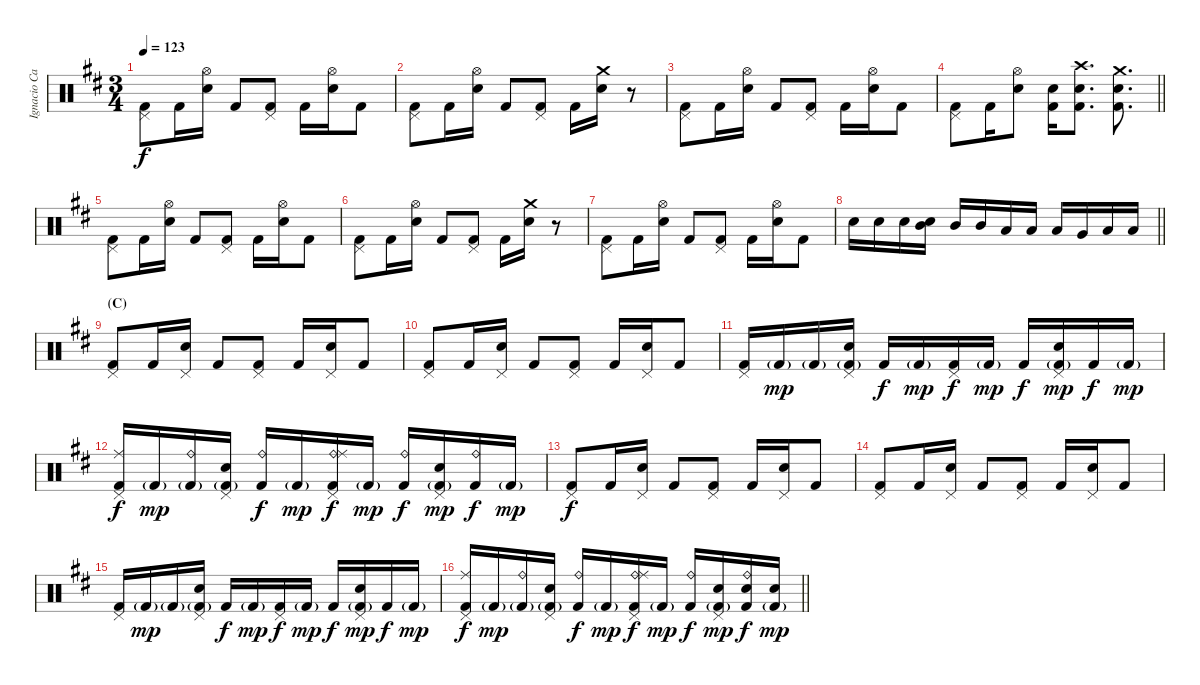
\track ("Ignacio Cantera - Batería" "Ignacio Ca") {instrument percussion}
\staff {score}
\articulation defaults
\ts (3 4)
\tempo 123
\clef neutral
\ks bminor
("Pedal Hi-Hat (hit)" "Kick (hit) 2").8{dy f} "Kick (hit) 2".16 ("Hi-Hat (open)" "Snare (hit) 2").16 "Kick (hit) 2".8 ("Pedal Hi-Hat (hit)" "Kick (hit) 2").8 "Kick (hit) 2".16 ("Hi-Hat (open)" "Snare (hit) 2").16 "Kick (hit) 2".8 |
("Pedal Hi-Hat (hit)" "Kick (hit) 2").8 "Kick (hit) 2".16 ("Hi-Hat (open)" "Snare (hit) 2").16 "Kick (hit) 2".8 ("Pedal Hi-Hat (hit)" "Kick (hit) 2").8 "Kick (hit) 2".16 ("Crash medium (hit)" "Snare (hit) 2").16 r.8 |
("Pedal Hi-Hat (hit)" "Kick (hit) 2").8 "Kick (hit) 2".16 ("Hi-Hat (open)" "Snare (hit) 2").16 "Kick (hit) 2".8 ("Pedal Hi-Hat (hit)" "Kick (hit) 2").8 "Kick (hit) 2".16 ("Hi-Hat (open)" "Snare (hit) 2").16 "Kick (hit) 2".8 |
\barLineRight lightlight
("Pedal Hi-Hat (hit)" "Kick (hit) 2").8 "Kick (hit) 2".16 ("Hi-Hat (open)" "Snare (hit) 2").8 ("Electric Snare (hit)" "Kick (hit) 2").16 ("Crash high (hit)" "Snare (hit) 2" "Kick (hit) 2").8{d} ("Crash medium (hit)" "Snare (hit) 2" "Kick (hit) 2").8{d} |
("Pedal Hi-Hat (hit)" "Kick (hit) 2").8 "Kick (hit) 2".16 ("Hi-Hat (open)" "Snare (hit) 2").16 "Kick (hit) 2".8 ("Pedal Hi-Hat (hit)" "Kick (hit) 2").8 "Kick (hit) 2".16 ("Hi-Hat (open)" "Snare (hit) 2").16 "Kick (hit) 2".8 |
("Pedal Hi-Hat (hit)" "Kick (hit) 2").8 "Kick (hit) 2".16 ("Hi-Hat (open)" "Snare (hit) 2").16 "Kick (hit) 2".8 ("Pedal Hi-Hat (hit)" "Kick (hit) 2").8 "Kick (hit) 2".16 ("Crash medium (hit)" "Snare (hit) 2").16 r.8 |
("Pedal Hi-Hat (hit)" "Kick (hit) 2").8 "Kick (hit) 2".16 ("Hi-Hat (open)" "Snare (hit) 2").16 "Kick (hit) 2".8 ("Pedal Hi-Hat (hit)" "Kick (hit) 2").8 "Kick (hit) 2".16 ("Hi-Hat (open)" "Snare (hit) 2").16 "Kick (hit) 2".8 |
\barLineRight lightlight "Electric Snare (hit)".16 "Electric Snare (hit)".16 "Electric Snare (hit)".16
("Mid Tom (hit)" "Snare (hit) 2").16 "Mid Tom (hit)".16 "Mid Tom (hit)".16 "Low Tom (hit)".16 "Low Tom (hit)".16 "Low Tom (hit)".16 "Very Low Tom (hit)".16 "Low Floor Tom (hit)".16 "Low Floor Tom (hit)".16 |
\section ("" "(C)")
("Pedal Hi-Hat (hit)" "Kick (hit) 2").8 "Kick (hit) 2".16 ("Pedal Hi-Hat (hit)" "Snare (hit) 2").16 "Kick (hit) 2".8 ("Pedal Hi-Hat (hit)" "Kick (hit) 2").8 "Kick (hit) 2".16 ("Pedal Hi-Hat (hit)" "Snare (hit) 2").16 "Kick (hit) 2".8 |
("Pedal Hi-Hat (hit)" "Kick (hit) 2").8 "Kick (hit) 2".16 ("Pedal Hi-Hat (hit)" "Snare (hit) 2").16 "Kick (hit) 2".8 ("Pedal Hi-Hat (hit)" "Kick (hit) 2").8 "Kick (hit) 2".16 ("Pedal Hi-Hat (hit)" "Snare (hit) 2").16 "Kick (hit) 2".8 |
("Pedal Hi-Hat (hit)" "Kick (hit) 2").16 "Kick (hit) 2"{g}.16{dy mp} "Kick (hit) 2"{g}.16 ("Pedal Hi-Hat (hit)" "Snare (hit) 2" "Kick (hit) 2"{g}).16 "Kick (hit) 2".16{dy f} "Kick (hit) 2"{g}.16{dy mp} ("Pedal Hi-Hat (hit)" "Kick (hit) 2").16{dy f} "Kick (hit) 2"{g}.16{dy mp} "Kick (hit) 2".16{dy f} ("Pedal Hi-Hat (hit)" "Snare (hit) 2" "Kick (hit) 2"{g}).16{dy mp} "Kick (hit) 2".16{dy f} "Kick (hit) 2"{g}.16{dy mp} |
("Pedal Hi-Hat (hit)" "Ride (middle)" "Kick (hit) 2").16{dy f} "Kick (hit) 2"{g}.16{dy mp} ("Ride (bell)" "Kick (hit) 2"{g}).16 ("Pedal Hi-Hat (hit)" "Snare (hit) 2" "Kick (hit) 2"{g}).16 ("Ride (bell)" "Kick (hit) 2").16{dy f} "Kick (hit) 2"{g}.16{dy mp} ("Pedal Hi-Hat (hit)" "Ride (bell)" "Ride (middle)" "Kick (hit) 2").16{dy f} "Kick (hit) 2"{g}.16{dy mp} ("Ride (bell)" "Kick (hit) 2").16{dy f} ("Pedal Hi-Hat (hit)" "Snare (hit) 2" "Kick (hit) 2"{g}).16{dy mp} ("Ride (bell)" "Kick (hit) 2").16{dy f} "Kick (hit) 2"{g}.16{dy mp} |
("Pedal Hi-Hat (hit)" "Kick (hit) 2").8{dy f} "Kick (hit) 2".16 ("Pedal Hi-Hat (hit)" "Snare (hit) 2").16 "Kick (hit) 2".8 ("Pedal Hi-Hat (hit)" "Kick (hit) 2").8 "Kick (hit) 2".16 ("Pedal Hi-Hat (hit)" "Snare (hit) 2").16 "Kick (hit) 2".8 |
("Pedal Hi-Hat (hit)" "Kick (hit) 2").8 "Kick (hit) 2".16 ("Pedal Hi-Hat (hit)" "Snare (hit) 2").16 "Kick (hit) 2".8 ("Pedal Hi-Hat (hit)" "Kick (hit) 2").8 "Kick (hit) 2".16 ("Pedal Hi-Hat (hit)" "Snare (hit) 2").16 "Kick (hit) 2".8 |
("Pedal Hi-Hat (hit)" "Kick (hit) 2").16 "Kick (hit) 2"{g}.16{dy mp} "Kick (hit) 2"{g}.16 ("Pedal Hi-Hat (hit)" "Snare (hit) 2" "Kick (hit) 2"{g}).16 "Kick (hit) 2".16{dy f} "Kick (hit) 2"{g}.16{dy mp} ("Pedal Hi-Hat (hit)" "Kick (hit) 2").16{dy f} "Kick (hit) 2"{g}.16{dy mp} "Kick (hit) 2".16{dy f} ("Pedal Hi-Hat (hit)" "Snare (hit) 2" "Kick (hit) 2"{g}).16{dy mp} "Kick (hit) 2".16{dy f} "Kick (hit) 2"{g}.16{dy mp} |
\barLineRight lightlight
("Pedal Hi-Hat (hit)" "Ride (middle)" "Kick (hit) 2").16{dy f} "Kick (hit) 2"{g}.16{dy mp} ("Ride (bell)" "Kick (hit) 2"{g}).16 ("Pedal Hi-Hat (hit)" "Snare (hit) 2" "Kick (hit) 2"{g}).16 ("Ride (bell)" "Kick (hit) 2").16{dy f} "Kick (hit) 2"{g}.16{dy mp} ("Pedal Hi-Hat (hit)" "Ride (bell)" "Ride (middle)" "Kick (hit) 2").16{dy f} "Kick (hit) 2"{g}.16{dy mp} ("Ride (bell)" "Kick (hit) 2").16{dy f} ("Pedal Hi-Hat (hit)" "Electric Snare (hit)" "Kick (hit) 2"{g}).16{dy mp} ("Electric Snare (hit)" "Ride (bell)" "Kick (hit) 2").16{dy f} ("Electric Snare (hit)" "Kick (hit) 2"{g}).16{dy mp}
